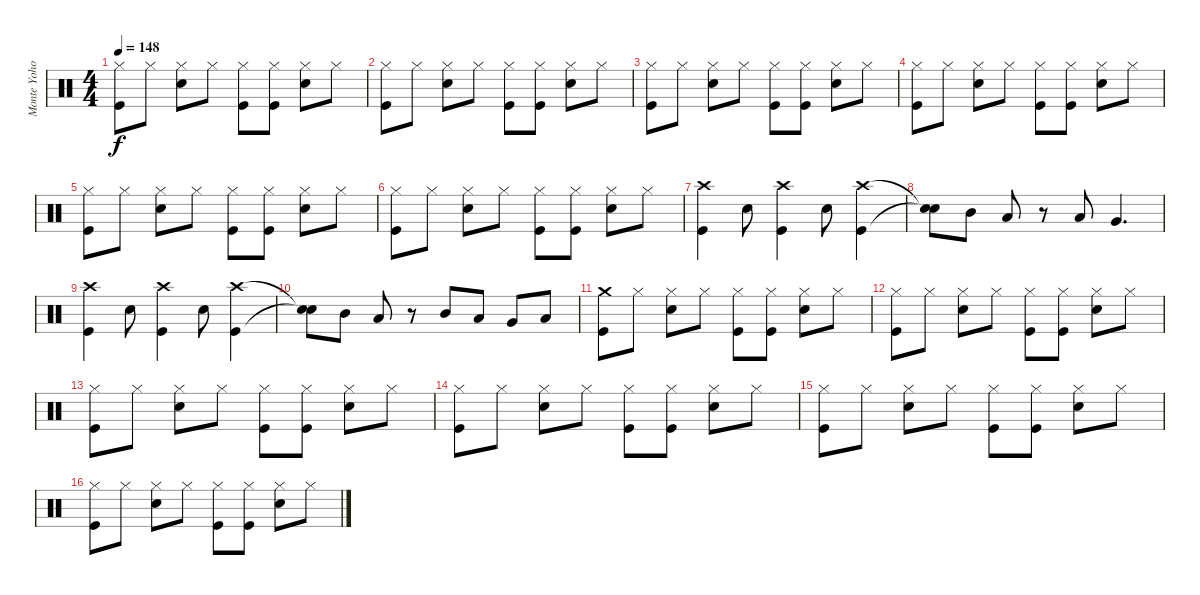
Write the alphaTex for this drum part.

\track ("Monte Yoho Drums" "Monte Yoho") {instrument percussion}
\staff {score}
\articulation defaults
\ts (4 4)
\tempo 148
\clef neutral
\ks c
("Hi-Hat (closed)" "Kick (hit)").8{dy f} "Hi-Hat (closed)".8 ("Hi-Hat (closed)" "Snare (hit) 2").8 "Hi-Hat (closed)".8 ("Hi-Hat (closed)" "Kick (hit)").8 ("Hi-Hat (closed)" "Kick (hit)").8 ("Hi-Hat (closed)" "Snare (hit) 2").8 "Hi-Hat (closed)".8 |
("Hi-Hat (closed)" "Kick (hit)").8 "Hi-Hat (closed)".8 ("Hi-Hat (closed)" "Snare (hit) 2").8 "Hi-Hat (closed)".8 ("Hi-Hat (closed)" "Kick (hit)").8 ("Hi-Hat (closed)" "Kick (hit)").8 ("Hi-Hat (closed)" "Snare (hit) 2").8 "Hi-Hat (closed)".8 |
("Hi-Hat (closed)" "Kick (hit)").8 "Hi-Hat (closed)".8 ("Hi-Hat (closed)" "Snare (hit) 2").8 "Hi-Hat (closed)".8 ("Hi-Hat (closed)" "Kick (hit)").8 ("Hi-Hat (closed)" "Kick (hit)").8 ("Hi-Hat (closed)" "Snare (hit) 2").8 "Hi-Hat (closed)".8 |
("Hi-Hat (closed)" "Kick (hit)").8 "Hi-Hat (closed)".8 ("Hi-Hat (closed)" "Snare (hit) 2").8 "Hi-Hat (closed)".8 ("Hi-Hat (closed)" "Kick (hit)").8 ("Hi-Hat (closed)" "Kick (hit)").8 ("Hi-Hat (closed)" "Snare (hit) 2").8 "Hi-Hat (closed)".8 |
("Hi-Hat (closed)" "Kick (hit)").8 "Hi-Hat (closed)".8 ("Hi-Hat (closed)" "Snare (hit) 2").8 "Hi-Hat (closed)".8 ("Hi-Hat (closed)" "Kick (hit)").8 ("Hi-Hat (closed)" "Kick (hit)").8 ("Hi-Hat (closed)" "Snare (hit) 2").8 "Hi-Hat (closed)".8 |
("Hi-Hat (closed)" "Kick (hit)").8 "Hi-Hat (closed)".8 ("Hi-Hat (closed)" "Snare (hit) 2").8 "Hi-Hat (closed)".8 ("Hi-Hat (closed)" "Kick (hit)").8 ("Hi-Hat (closed)" "Kick (hit)").8 ("Hi-Hat (closed)" "Snare (hit) 2").8 "Hi-Hat (closed)".8 |
("Crash high (hit)" "Kick (hit)").4 "Snare (hit) 2".8 ("Crash high (hit)" "Kick (hit)").4 "Snare (hit) 2".8 ("Crash high (hit)" "Kick (hit)").4 |
("Snare (hit)"{t} "Snare (hit)"{t}).8 "Mid Tom (hit)".8 "Low Tom (hit)".8 r.8 "Low Tom (hit)".8 "Very Low Tom (hit)".4{d} |
("Crash high (hit)" "Kick (hit)").4 "Snare (hit) 2".8 ("Crash high (hit)" "Kick (hit)").4 "Snare (hit) 2".8 ("Crash high (hit)" "Kick (hit)").4 |
("Snare (hit)"{t} "Snare (hit)"{t}).8 "Mid Tom (hit)".8 "Low Tom (hit)".8 r.8 "Mid Tom (hit)".8 "Low Tom (hit)".8 "Very Low Tom (hit)".8 "Low Floor Tom (hit)".8 |
("Crash medium (hit)" "Kick (hit)").8 "Hi-Hat (closed)".8 ("Hi-Hat (closed)" "Snare (hit) 2").8 "Hi-Hat (closed)".8 ("Hi-Hat (closed)" "Kick (hit)").8 ("Hi-Hat (closed)" "Kick (hit)").8 ("Hi-Hat (closed)" "Snare (hit) 2").8 "Hi-Hat (closed)".8 |
("Hi-Hat (closed)" "Kick (hit)").8 "Hi-Hat (closed)".8 ("Hi-Hat (closed)" "Snare (hit) 2").8 "Hi-Hat (closed)".8 ("Hi-Hat (closed)" "Kick (hit)").8 ("Hi-Hat (closed)" "Kick (hit)").8 ("Hi-Hat (closed)" "Snare (hit) 2").8 "Hi-Hat (closed)".8 |
("Hi-Hat (closed)" "Kick (hit)").8 "Hi-Hat (closed)".8 ("Hi-Hat (closed)" "Snare (hit) 2").8 "Hi-Hat (closed)".8 ("Hi-Hat (closed)" "Kick (hit)").8 ("Hi-Hat (closed)" "Kick (hit)").8 ("Hi-Hat (closed)" "Snare (hit) 2").8 "Hi-Hat (closed)".8 |
("Hi-Hat (closed)" "Kick (hit)").8 "Hi-Hat (closed)".8 ("Hi-Hat (closed)" "Snare (hit) 2").8 "Hi-Hat (closed)".8 ("Hi-Hat (closed)" "Kick (hit)").8 ("Hi-Hat (closed)" "Kick (hit)").8 ("Hi-Hat (closed)" "Snare (hit) 2").8 "Hi-Hat (closed)".8 |
("Hi-Hat (closed)" "Kick (hit)").8 "Hi-Hat (closed)".8 ("Hi-Hat (closed)" "Snare (hit) 2").8 "Hi-Hat (closed)".8 ("Hi-Hat (closed)" "Kick (hit)").8 ("Hi-Hat (closed)" "Kick (hit)").8 ("Hi-Hat (closed)" "Snare (hit) 2").8 "Hi-Hat (closed)".8 |
("Hi-Hat (closed)" "Kick (hit)").8 "Hi-Hat (closed)".8 ("Hi-Hat (closed)" "Snare (hit) 2").8 "Hi-Hat (closed)".8 ("Hi-Hat (closed)" "Kick (hit)").8 ("Hi-Hat (closed)" "Kick (hit)").8 ("Hi-Hat (closed)" "Snare (hit) 2").8 "Hi-Hat (closed)".8
